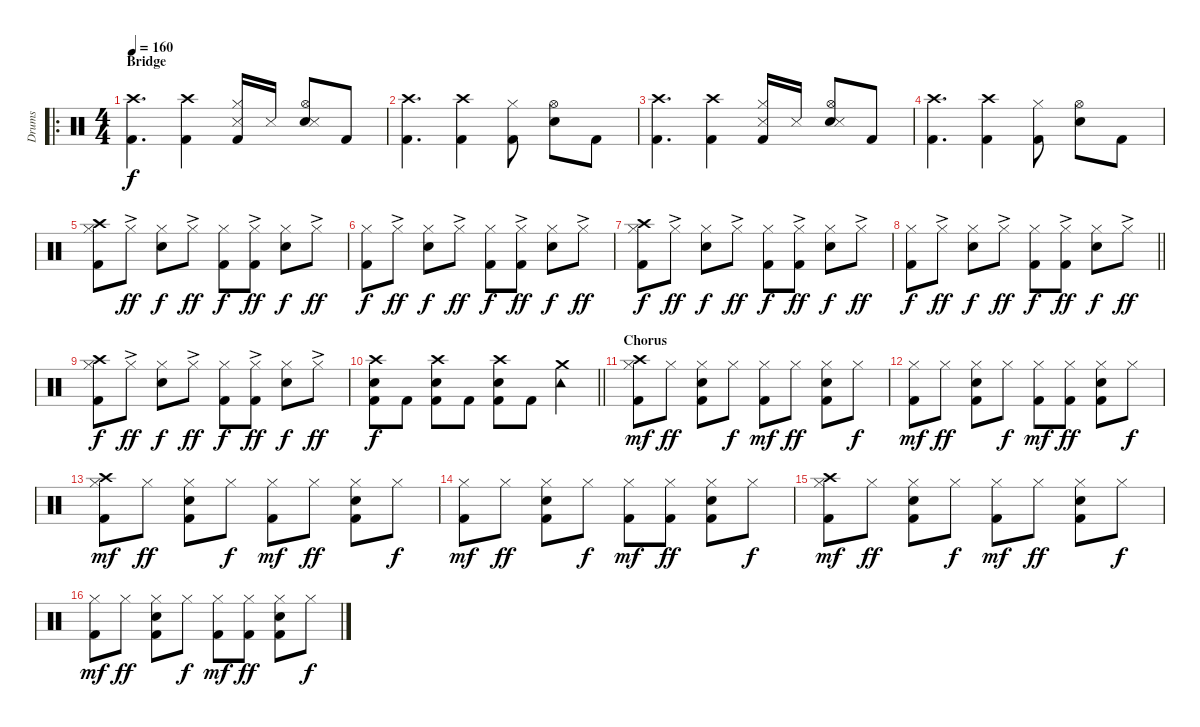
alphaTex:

\track ("Drums" "Drums") {instrument percussion}
\staff {score}
\articulation defaults
\ro
\ts (4 4)
\section ("" "Bridge")
\tempo 160
\clef neutral
\ks c
("Crash high (hit)" "Kick (hit) 2").4{d dy f} ("Crash high (hit)" "Kick (hit) 2").4 ("Hi-Hat (closed)" "Metronome (hit)" "Kick (hit) 2").16 "Metronome (hit)".16 ("Hi-Hat (open)" "Electric Snare (hit)" "Metronome (hit)").8 "Kick (hit) 2".8 |
("Crash high (hit)" "Kick (hit) 2").4{d} ("Crash high (hit)" "Kick (hit) 2").4 ("Hi-Hat (closed)" "Kick (hit) 2").8 ("Hi-Hat (open)" "Electric Snare (hit)").8 "Kick (hit) 2".8 |
("Crash high (hit)" "Kick (hit) 2").4{d} ("Crash high (hit)" "Kick (hit) 2").4 ("Hi-Hat (closed)" "Metronome (hit)" "Kick (hit) 2").16 "Metronome (hit)".16 ("Hi-Hat (open)" "Electric Snare (hit)" "Metronome (hit)").8 "Kick (hit) 2".8 |
("Crash high (hit)" "Kick (hit) 2").4{d} ("Crash high (hit)" "Kick (hit) 2").4 ("Hi-Hat (closed)" "Kick (hit) 2").8 ("Hi-Hat (open)" "Electric Snare (hit)").8 "Kick (hit) 2".8 |
("Hi-Hat (closed)" "Crash high (hit)" "Kick (hit) 2").8 "Hi-Hat (closed)"{ac}.8{dy ff} ("Hi-Hat (closed)" "Electric Snare (hit)").8{dy f} "Hi-Hat (closed)"{ac}.8{dy ff} ("Hi-Hat (closed)" "Kick (hit) 2").8{dy f} ("Hi-Hat (closed)"{ac} "Kick (hit) 2").8{dy ff} ("Hi-Hat (closed)" "Electric Snare (hit)").8{dy f} "Hi-Hat (closed)"{ac}.8{dy ff} |
("Hi-Hat (closed)" "Kick (hit) 2").8{dy f} "Hi-Hat (closed)"{ac}.8{dy ff} ("Hi-Hat (closed)" "Electric Snare (hit)").8{dy f} "Hi-Hat (closed)"{ac}.8{dy ff} ("Hi-Hat (closed)" "Kick (hit) 2").8{dy f} ("Hi-Hat (closed)"{ac} "Kick (hit) 2").8{dy ff} ("Hi-Hat (closed)" "Electric Snare (hit)").8{dy f} "Hi-Hat (closed)"{ac}.8{dy ff} |
("Hi-Hat (closed)" "Crash high (hit)" "Kick (hit) 2").8{dy f} "Hi-Hat (closed)"{ac}.8{dy ff} ("Hi-Hat (closed)" "Electric Snare (hit)").8{dy f} "Hi-Hat (closed)"{ac}.8{dy ff} ("Hi-Hat (closed)" "Kick (hit) 2").8{dy f} ("Hi-Hat (closed)"{ac} "Kick (hit) 2").8{dy ff} ("Hi-Hat (closed)" "Electric Snare (hit)").8{dy f} "Hi-Hat (closed)"{ac}.8{dy ff} |
\barLineRight lightlight
("Hi-Hat (closed)" "Kick (hit) 2").8{dy f} "Hi-Hat (closed)"{ac}.8{dy ff} ("Hi-Hat (closed)" "Electric Snare (hit)").8{dy f} "Hi-Hat (closed)"{ac}.8{dy ff} ("Hi-Hat (closed)" "Kick (hit) 2").8{dy f} ("Hi-Hat (closed)"{ac} "Kick (hit) 2").8{dy ff} ("Hi-Hat (closed)" "Electric Snare (hit)").8{dy f} "Hi-Hat (closed)"{ac}.8{dy ff} |
("Hi-Hat (closed)" "Crash high (hit)" "Kick (hit) 2").8{dy f} "Hi-Hat (closed)"{ac}.8{dy ff} ("Hi-Hat (closed)" "Electric Snare (hit)").8{dy f} "Hi-Hat (closed)"{ac}.8{dy ff} ("Hi-Hat (closed)" "Kick (hit) 2").8{dy f} ("Hi-Hat (closed)"{ac} "Kick (hit) 2").8{dy ff} ("Hi-Hat (closed)" "Electric Snare (hit)").8{dy f} "Hi-Hat (closed)"{ac}.8{dy ff} |
\barLineRight lightlight
("Crash high (hit)" "Electric Snare (hit)" "Kick (hit) 2").8{dy f} "Kick (hit) 2".8 ("Crash high (hit)" "Electric Snare (hit)" "Kick (hit) 2").8 "Kick (hit) 2".8 ("Crash high (hit)" "Electric Snare (hit)" "Kick (hit) 2").8 "Kick (hit) 2".8 ("Crash medium (hit)" "Tambourine (hit)").4 |
\section ("" "Chorus")
("Hi-Hat (closed)" "Crash high (hit)" "Kick (hit) 2").8{dy mf} "Hi-Hat (closed)".8{dy ff} ("Hi-Hat (closed)" "Electric Snare (hit)" "Kick (hit) 2").8 "Hi-Hat (closed)".8{dy f} ("Hi-Hat (closed)" "Kick (hit) 2").8{dy mf} "Hi-Hat (closed)".8{dy ff} ("Hi-Hat (closed)" "Electric Snare (hit)" "Kick (hit) 2").8 "Hi-Hat (closed)".8{dy f} |
("Hi-Hat (closed)" "Kick (hit) 2").8{dy mf} "Hi-Hat (closed)".8{dy ff} ("Hi-Hat (closed)" "Electric Snare (hit)" "Kick (hit) 2").8 "Hi-Hat (closed)".8{dy f} ("Hi-Hat (closed)" "Kick (hit) 2").8{dy mf} ("Hi-Hat (closed)" "Kick (hit) 2").8{dy ff} ("Hi-Hat (closed)" "Electric Snare (hit)" "Kick (hit) 2").8 "Hi-Hat (closed)".8{dy f} |
("Hi-Hat (closed)" "Crash high (hit)" "Kick (hit) 2").8{dy mf} "Hi-Hat (closed)".8{dy ff} ("Hi-Hat (closed)" "Electric Snare (hit)" "Kick (hit) 2").8 "Hi-Hat (closed)".8{dy f} ("Hi-Hat (closed)" "Kick (hit) 2").8{dy mf} "Hi-Hat (closed)".8{dy ff} ("Hi-Hat (closed)" "Electric Snare (hit)" "Kick (hit) 2").8 "Hi-Hat (closed)".8{dy f} |
("Hi-Hat (closed)" "Kick (hit) 2").8{dy mf} "Hi-Hat (closed)".8{dy ff} ("Hi-Hat (closed)" "Electric Snare (hit)" "Kick (hit) 2").8 "Hi-Hat (closed)".8{dy f} ("Hi-Hat (closed)" "Kick (hit) 2").8{dy mf} ("Hi-Hat (closed)" "Kick (hit) 2").8{dy ff} ("Hi-Hat (closed)" "Electric Snare (hit)" "Kick (hit) 2").8 "Hi-Hat (closed)".8{dy f} |
("Hi-Hat (closed)" "Crash high (hit)" "Kick (hit) 2").8{dy mf} "Hi-Hat (closed)".8{dy ff} ("Hi-Hat (closed)" "Electric Snare (hit)" "Kick (hit) 2").8 "Hi-Hat (closed)".8{dy f} ("Hi-Hat (closed)" "Kick (hit) 2").8{dy mf} "Hi-Hat (closed)".8{dy ff} ("Hi-Hat (closed)" "Electric Snare (hit)" "Kick (hit) 2").8 "Hi-Hat (closed)".8{dy f} |
("Hi-Hat (closed)" "Kick (hit) 2").8{dy mf} "Hi-Hat (closed)".8{dy ff} ("Hi-Hat (closed)" "Electric Snare (hit)" "Kick (hit) 2").8 "Hi-Hat (closed)".8{dy f} ("Hi-Hat (closed)" "Kick (hit) 2").8{dy mf} ("Hi-Hat (closed)" "Kick (hit) 2").8{dy ff} ("Hi-Hat (closed)" "Electric Snare (hit)" "Kick (hit) 2").8 "Hi-Hat (closed)".8{dy f}
